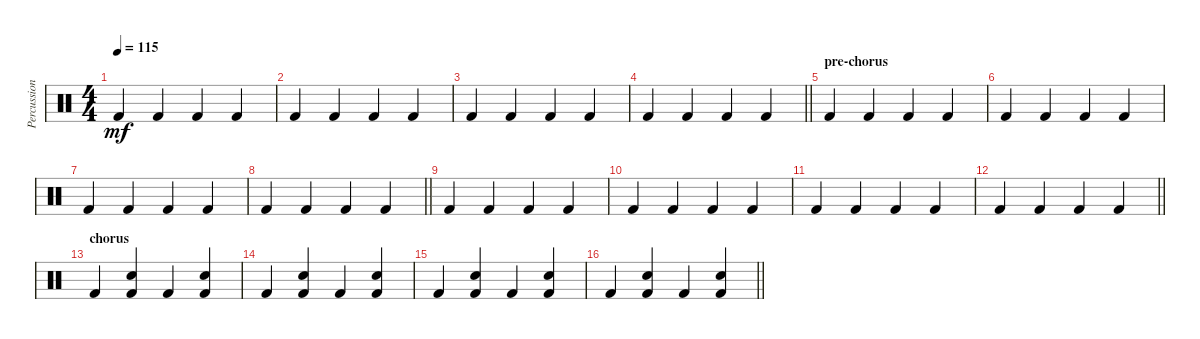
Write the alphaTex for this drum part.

\track ("Percussion" "Percussion") {instrument percussion}
\staff {score}
\articulation defaults
\ts (4 4)
\tempo 115
\clef neutral
\ks c "Kick (hit) 2".4{dy mf} "Kick (hit) 2".4 "Kick (hit) 2".4 "Kick (hit) 2".4
|
"Kick (hit) 2".4 "Kick (hit) 2".4 "Kick (hit) 2".4 "Kick (hit) 2".4 |
"Kick (hit) 2".4 "Kick (hit) 2".4 "Kick (hit) 2".4 "Kick (hit) 2".4 |
\barLineRight lightlight "Kick (hit) 2".4 "Kick (hit) 2".4 "Kick (hit) 2".4 "Kick (hit) 2".4
|
\section ("" "pre-chorus")
"Kick (hit) 2".4 "Kick (hit) 2".4 "Kick (hit) 2".4 "Kick (hit) 2".4 |
"Kick (hit) 2".4 "Kick (hit) 2".4 "Kick (hit) 2".4 "Kick (hit) 2".4 |
"Kick (hit) 2".4 "Kick (hit) 2".4 "Kick (hit) 2".4 "Kick (hit) 2".4 |
\barLineRight lightlight "Kick (hit) 2".4 "Kick (hit) 2".4 "Kick (hit) 2".4 "Kick (hit) 2".4
|
"Kick (hit) 2".4 "Kick (hit) 2".4 "Kick (hit) 2".4 "Kick (hit) 2".4 |
"Kick (hit) 2".4 "Kick (hit) 2".4 "Kick (hit) 2".4 "Kick (hit) 2".4 |
"Kick (hit) 2".4 "Kick (hit) 2".4 "Kick (hit) 2".4 "Kick (hit) 2".4 |
\barLineRight lightlight "Kick (hit) 2".4 "Kick (hit) 2".4 "Kick (hit) 2".4 "Kick (hit) 2".4
|
\section ("" "chorus")
"Kick (hit) 2".4 ("Kick (hit) 2" "Snare (hit) 2").4 "Kick (hit) 2".4 ("Kick (hit) 2" "Snare (hit) 2").4 |
"Kick (hit) 2".4 ("Kick (hit) 2" "Snare (hit) 2").4 "Kick (hit) 2".4 ("Kick (hit) 2" "Snare (hit) 2").4 |
"Kick (hit) 2".4 ("Kick (hit) 2" "Snare (hit) 2").4 "Kick (hit) 2".4 ("Kick (hit) 2" "Snare (hit) 2").4 |
\barLineRight lightlight "Kick (hit) 2".4
("Kick (hit) 2" "Snare (hit) 2").4 "Kick (hit) 2".4 ("Kick (hit) 2" "Snare (hit) 2").4
